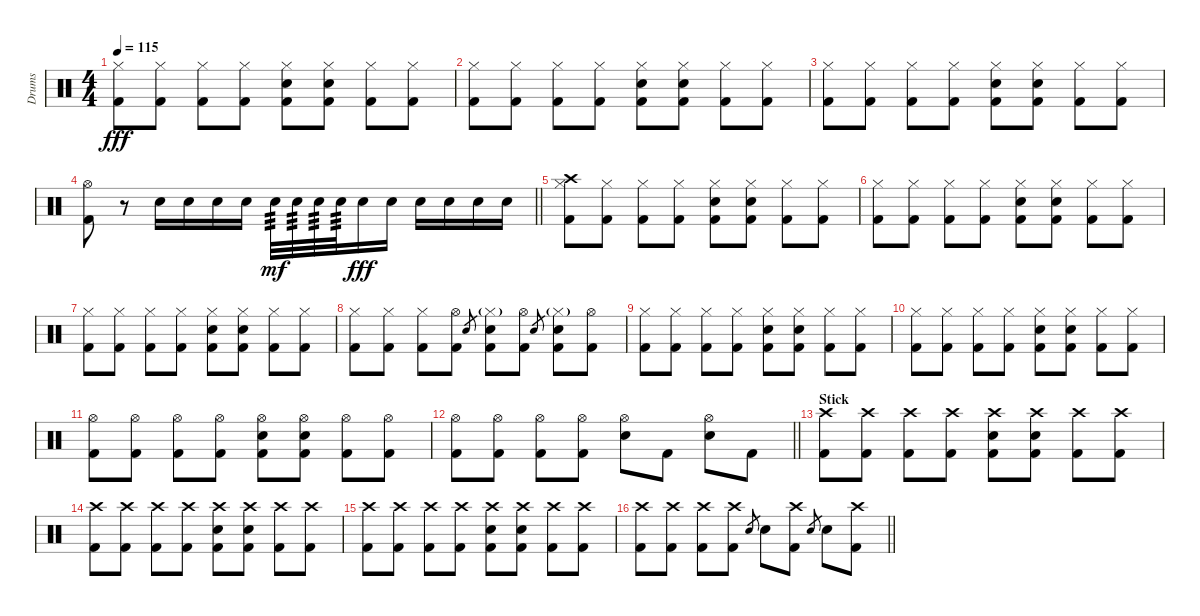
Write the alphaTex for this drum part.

\track ("Drums" "Drums") {instrument percussion}
\staff {score}
\articulation defaults
\ts (4 4)
\tempo 115
\clef neutral
\ks c
("Hi-Hat (closed)" "Kick (hit) 2").8{dy fff} ("Hi-Hat (closed)" "Kick (hit) 2").8 ("Hi-Hat (closed)" "Kick (hit) 2").8 ("Hi-Hat (closed)" "Kick (hit) 2").8 ("Hi-Hat (closed)" "Electric Snare (hit)" "Kick (hit) 2").8 ("Hi-Hat (closed)" "Electric Snare (hit)" "Kick (hit) 2").8 ("Hi-Hat (closed)" "Kick (hit) 2").8 ("Hi-Hat (closed)" "Kick (hit) 2").8 |
("Hi-Hat (closed)" "Kick (hit) 2").8 ("Hi-Hat (closed)" "Kick (hit) 2").8 ("Hi-Hat (closed)" "Kick (hit) 2").8 ("Hi-Hat (closed)" "Kick (hit) 2").8 ("Hi-Hat (closed)" "Electric Snare (hit)" "Kick (hit) 2").8 ("Hi-Hat (closed)" "Electric Snare (hit)" "Kick (hit) 2").8 ("Hi-Hat (closed)" "Kick (hit) 2").8 ("Hi-Hat (closed)" "Kick (hit) 2").8 |
("Hi-Hat (closed)" "Kick (hit) 2").8 ("Hi-Hat (closed)" "Kick (hit) 2").8 ("Hi-Hat (closed)" "Kick (hit) 2").8 ("Hi-Hat (closed)" "Kick (hit) 2").8 ("Hi-Hat (closed)" "Electric Snare (hit)" "Kick (hit) 2").8 ("Hi-Hat (closed)" "Electric Snare (hit)" "Kick (hit) 2").8 ("Hi-Hat (closed)" "Kick (hit) 2").8 ("Hi-Hat (closed)" "Kick (hit) 2").8 |
\barLineRight lightlight
("Hi-Hat (open)" "Kick (hit) 2").8 r.8 "Electric Snare (hit)".16 "Electric Snare (hit)".16 "Electric Snare (hit)".16 "Electric Snare (hit)".16 "Electric Snare (hit)".32{tp 3 dy mf} "Electric Snare (hit)".32{tp 3} "Electric Snare (hit)".32{tp 3} "Electric Snare (hit)".32{tp 3} "Electric Snare (hit)".16{dy fff} "Electric Snare (hit)".16 "Electric Snare (hit)".16 "Electric Snare (hit)".16 "Electric Snare (hit)".16 "Electric Snare (hit)".16 |
("Crash high (hit)" "Hi-Hat (closed)" "Kick (hit) 2").8 ("Hi-Hat (closed)" "Kick (hit) 2").8 ("Hi-Hat (closed)" "Kick (hit) 2").8 ("Hi-Hat (closed)" "Kick (hit) 2").8 ("Hi-Hat (closed)" "Electric Snare (hit)" "Kick (hit) 2").8 ("Hi-Hat (closed)" "Electric Snare (hit)" "Kick (hit) 2").8 ("Hi-Hat (closed)" "Kick (hit) 2").8 ("Hi-Hat (closed)" "Kick (hit) 2").8 |
("Hi-Hat (closed)" "Kick (hit) 2").8 ("Hi-Hat (closed)" "Kick (hit) 2").8 ("Hi-Hat (closed)" "Kick (hit) 2").8 ("Hi-Hat (closed)" "Kick (hit) 2").8 ("Hi-Hat (closed)" "Electric Snare (hit)" "Kick (hit) 2").8 ("Hi-Hat (closed)" "Electric Snare (hit)" "Kick (hit) 2").8 ("Hi-Hat (closed)" "Kick (hit) 2").8 ("Hi-Hat (closed)" "Kick (hit) 2").8 |
("Hi-Hat (closed)" "Kick (hit) 2").8 ("Hi-Hat (closed)" "Kick (hit) 2").8 ("Hi-Hat (closed)" "Kick (hit) 2").8 ("Hi-Hat (closed)" "Kick (hit) 2").8 ("Hi-Hat (closed)" "Electric Snare (hit)" "Kick (hit) 2").8 ("Hi-Hat (closed)" "Electric Snare (hit)" "Kick (hit) 2").8 ("Hi-Hat (closed)" "Kick (hit) 2").8 ("Hi-Hat (closed)" "Kick (hit) 2").8 |
("Hi-Hat (closed)" "Kick (hit) 2").8 ("Hi-Hat (closed)" "Kick (hit) 2").8 ("Hi-Hat (closed)" "Kick (hit) 2").8 ("Hi-Hat (open)" "Kick (hit) 2").8 "Electric Snare (hit)".8{gr} ("Hi-Hat (closed)"{g} "Electric Snare (hit)" "Kick (hit) 2").8 ("Hi-Hat (open)" "Kick (hit) 2").8 "Electric Snare (hit)".8{gr} ("Hi-Hat (closed)"{g} "Electric Snare (hit)" "Kick (hit) 2").8 ("Hi-Hat (open)" "Kick (hit) 2").8 |
("Hi-Hat (closed)" "Kick (hit) 2").8 ("Hi-Hat (closed)" "Kick (hit) 2").8 ("Hi-Hat (closed)" "Kick (hit) 2").8 ("Hi-Hat (closed)" "Kick (hit) 2").8 ("Hi-Hat (closed)" "Electric Snare (hit)" "Kick (hit) 2").8 ("Hi-Hat (closed)" "Electric Snare (hit)" "Kick (hit) 2").8 ("Hi-Hat (closed)" "Kick (hit) 2").8 ("Hi-Hat (closed)" "Kick (hit) 2").8 |
("Hi-Hat (closed)" "Kick (hit) 2").8 ("Hi-Hat (closed)" "Kick (hit) 2").8 ("Hi-Hat (closed)" "Kick (hit) 2").8 ("Hi-Hat (closed)" "Kick (hit) 2").8 ("Hi-Hat (closed)" "Electric Snare (hit)" "Kick (hit) 2").8 ("Hi-Hat (closed)" "Electric Snare (hit)" "Kick (hit) 2").8 ("Hi-Hat (closed)" "Kick (hit) 2").8 ("Hi-Hat (closed)" "Kick (hit) 2").8 |
("Hi-Hat (open)" "Kick (hit) 2").8 ("Hi-Hat (open)" "Kick (hit) 2").8 ("Hi-Hat (open)" "Kick (hit) 2").8 ("Hi-Hat (open)" "Kick (hit) 2").8 ("Hi-Hat (open)" "Electric Snare (hit)" "Kick (hit) 2").8 ("Hi-Hat (open)" "Electric Snare (hit)" "Kick (hit) 2").8 ("Hi-Hat (open)" "Kick (hit) 2").8 ("Hi-Hat (open)" "Kick (hit) 2").8 |
\barLineRight lightlight
("Hi-Hat (open)" "Kick (hit) 2").8 ("Hi-Hat (open)" "Kick (hit) 2").8 ("Hi-Hat (open)" "Kick (hit) 2").8 ("Hi-Hat (open)" "Kick (hit) 2").8 ("Hi-Hat (open)" "Electric Snare (hit)").8 "Kick (hit) 2".8 ("Hi-Hat (open)" "Electric Snare (hit)").8 "Kick (hit) 2".8 |
\section ("" "Stick")
("Crash high (hit)" "Kick (hit) 2").8 ("Crash high (hit)" "Kick (hit) 2").8 ("Crash high (hit)" "Kick (hit) 2").8 ("Crash high (hit)" "Kick (hit) 2").8 ("Crash high (hit)" "Electric Snare (hit)" "Kick (hit) 2").8 ("Crash high (hit)" "Electric Snare (hit)" "Kick (hit) 2").8 ("Crash high (hit)" "Kick (hit) 2").8 ("Crash high (hit)" "Kick (hit) 2").8 |
("Crash high (hit)" "Kick (hit) 2").8 ("Crash high (hit)" "Kick (hit) 2").8 ("Crash high (hit)" "Kick (hit) 2").8 ("Crash high (hit)" "Kick (hit) 2").8 ("Crash high (hit)" "Electric Snare (hit)" "Kick (hit) 2").8 ("Crash high (hit)" "Electric Snare (hit)" "Kick (hit) 2").8 ("Crash high (hit)" "Kick (hit) 2").8 ("Crash high (hit)" "Kick (hit) 2").8 |
("Crash high (hit)" "Kick (hit) 2").8 ("Crash high (hit)" "Kick (hit) 2").8 ("Crash high (hit)" "Kick (hit) 2").8 ("Crash high (hit)" "Kick (hit) 2").8 ("Crash high (hit)" "Electric Snare (hit)" "Kick (hit) 2").8 ("Crash high (hit)" "Electric Snare (hit)" "Kick (hit) 2").8 ("Crash high (hit)" "Kick (hit) 2").8 ("Crash high (hit)" "Kick (hit) 2").8 |
\barLineRight lightlight
("Crash high (hit)" "Kick (hit) 2").8 ("Crash high (hit)" "Kick (hit) 2").8 ("Crash high (hit)" "Kick (hit) 2").8 ("Crash high (hit)" "Kick (hit) 2").8 "Electric Snare (hit)".8{gr} "Electric Snare (hit)".8 ("Crash high (hit)" "Kick (hit) 2").8 "Electric Snare (hit)".8{gr} "Electric Snare (hit)".8 ("Crash high (hit)" "Kick (hit) 2").8
